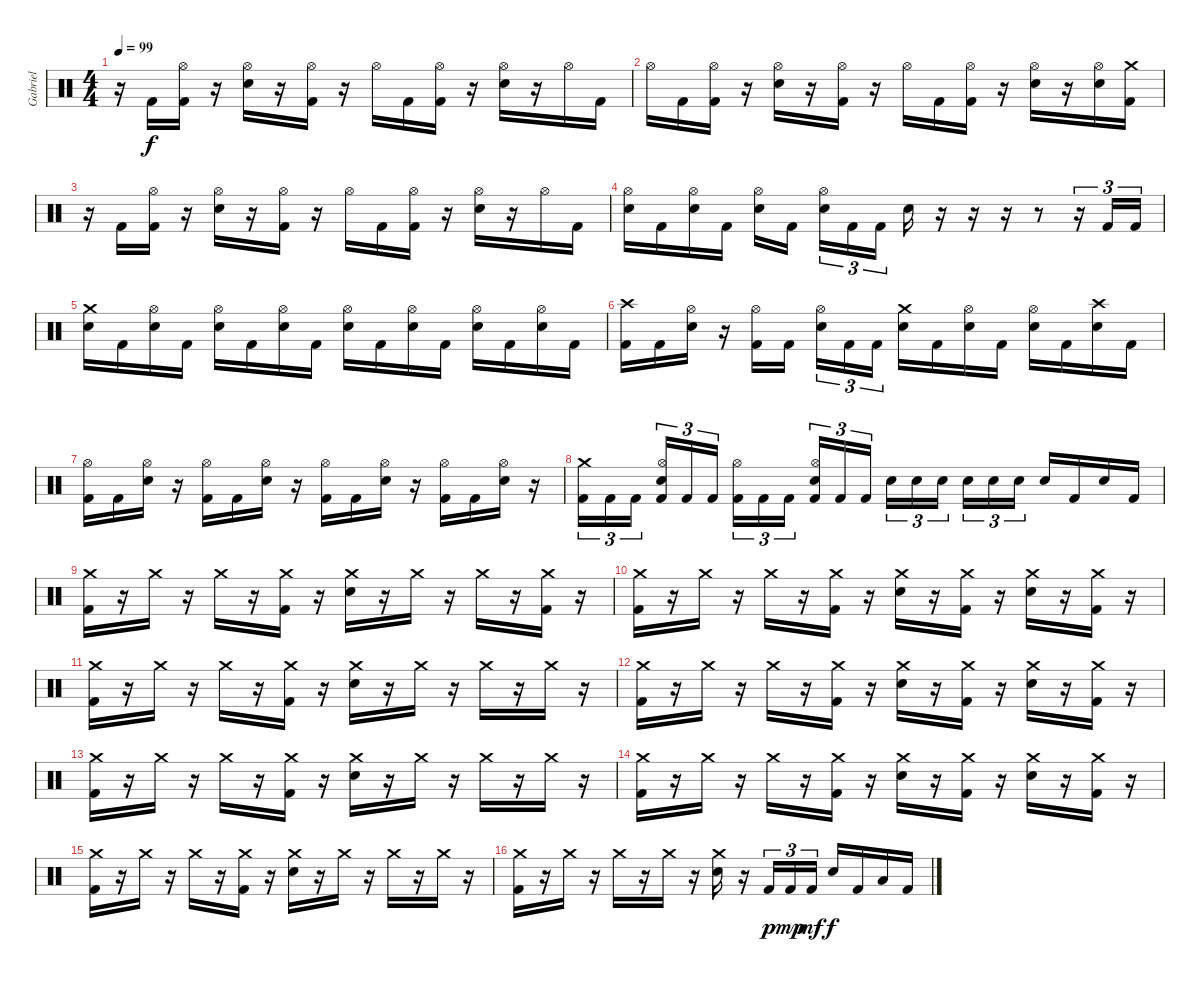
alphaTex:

\track ("Gabriel" "Gabriel") {instrument percussion}
\staff {score}
\articulation defaults
\ts (4 4)
\tempo 99
\clef neutral
\ks c
r.16{dy f} "Kick (hit) 2".16 ("Hi-Hat (open)" "Kick (hit) 2").16 r.16 ("Hi-Hat (open)" "Electric Snare (hit)").16 r.16 ("Hi-Hat (open)" "Kick (hit) 2").16 r.16 "Hi-Hat (open)".16 "Kick (hit) 2".16 ("Hi-Hat (open)" "Kick (hit) 2").16 r.16 ("Hi-Hat (open)" "Electric Snare (hit)").16 r.16 "Hi-Hat (open)".16 "Kick (hit) 2".16 |
"Hi-Hat (open)".16 "Kick (hit) 2".16 ("Hi-Hat (open)" "Kick (hit) 2").16 r.16 ("Hi-Hat (open)" "Electric Snare (hit)").16 r.16 ("Hi-Hat (open)" "Kick (hit) 2").16 r.16 "Hi-Hat (open)".16 "Kick (hit) 2".16 ("Hi-Hat (open)" "Kick (hit) 2").16 r.16 ("Hi-Hat (open)" "Electric Snare (hit)").16 r.16 ("Hi-Hat (open)" "Electric Snare (hit)").16 ("Crash medium (hit)" "Kick (hit) 2").16 |
r.16 "Kick (hit) 2".16 ("Hi-Hat (open)" "Kick (hit) 2").16 r.16 ("Hi-Hat (open)" "Electric Snare (hit)").16 r.16 ("Hi-Hat (open)" "Kick (hit) 2").16 r.16 "Hi-Hat (open)".16 "Kick (hit) 2".16 ("Hi-Hat (open)" "Kick (hit) 2").16 r.16 ("Hi-Hat (open)" "Electric Snare (hit)").16 r.16 "Hi-Hat (open)".16 "Kick (hit) 2".16 |
("Hi-Hat (open)" "Electric Snare (hit)").16 "Kick (hit) 2".16 ("Hi-Hat (open)" "Electric Snare (hit)").16 "Kick (hit) 2".16 ("Hi-Hat (open)" "Electric Snare (hit)").16 "Kick (hit) 2".16{beam splitsecondary} ("Hi-Hat (open)" "Electric Snare (hit)").16{tu (3 2)} "Kick (hit) 2".16{tu (3 2)} "Kick (hit) 2".16{tu (3 2)} "Electric Snare (hit)".16 r.16 r.16 r.16 r.8 r.16{tu (3 2)} "Kick (hit) 2".16{tu (3 2)} "Kick (hit) 2".16{tu (3 2)} |
("Crash medium (hit)" "Electric Snare (hit)").16 "Kick (hit) 2".16 ("Hi-Hat (open)" "Electric Snare (hit)").16 "Kick (hit) 2".16 ("Hi-Hat (open)" "Electric Snare (hit)").16 "Kick (hit) 2".16 ("Hi-Hat (open)" "Electric Snare (hit)").16 "Kick (hit) 2".16 ("Hi-Hat (open)" "Electric Snare (hit)").16 "Kick (hit) 2".16 ("Hi-Hat (open)" "Electric Snare (hit)").16 "Kick (hit) 2".16 ("Hi-Hat (open)" "Electric Snare (hit)").16 "Kick (hit) 2".16 ("Hi-Hat (open)" "Electric Snare (hit)").16 "Kick (hit) 2".16 |
("Crash high (hit)" "Kick (hit) 2").16 "Kick (hit) 2".16 ("Hi-Hat (open)" "Electric Snare (hit)").16 r.16 ("Hi-Hat (open)" "Kick (hit) 2").16 "Kick (hit) 2".16{beam splitsecondary} ("Hi-Hat (open)" "Electric Snare (hit)").16{tu (3 2)} "Kick (hit) 2".16{tu (3 2)} "Kick (hit) 2".16{tu (3 2)} ("Crash medium (hit)" "Electric Snare (hit)").16 "Kick (hit) 2".16 ("Hi-Hat (open)" "Electric Snare (hit)").16 "Kick (hit) 2".16 ("Hi-Hat (open)" "Electric Snare (hit)").16 "Kick (hit) 2".16 ("Crash high (hit)" "Electric Snare (hit)").16 "Kick (hit) 2".16 |
("Hi-Hat (open)" "Kick (hit) 2").16 "Kick (hit) 2".16 ("Hi-Hat (open)" "Electric Snare (hit)").16 r.16 ("Hi-Hat (open)" "Kick (hit) 2").16 "Kick (hit) 2".16 ("Hi-Hat (open)" "Electric Snare (hit)").16 r.16 ("Hi-Hat (open)" "Kick (hit) 2").16 "Kick (hit) 2".16 ("Hi-Hat (open)" "Electric Snare (hit)").16 r.16 ("Hi-Hat (open)" "Kick (hit) 2").16 "Kick (hit) 2".16 ("Hi-Hat (open)" "Electric Snare (hit)").16 r.16 |
("Crash medium (hit)" "Kick (hit) 2").16{tu (3 2)} "Kick (hit) 2".16{tu (3 2)} "Kick (hit) 2".16{tu (3 2) beam splitsecondary} ("Hi-Hat (open)" "Electric Snare (hit)" "Kick (hit) 2").16{tu (3 2)} "Kick (hit) 2".16{tu (3 2)} "Kick (hit) 2".16{tu (3 2)} ("Hi-Hat (open)" "Kick (hit) 2").16{tu (3 2)} "Kick (hit) 2".16{tu (3 2)} "Kick (hit) 2".16{tu (3 2) beam splitsecondary} ("Hi-Hat (open)" "Electric Snare (hit)" "Kick (hit) 2").16{tu (3 2)} "Kick (hit) 2".16{tu (3 2)} "Kick (hit) 2".16{tu (3 2)} "Electric Snare (hit)".16{tu (3 2)} "Electric Snare (hit)".16{tu (3 2)} "Electric Snare (hit)".16{tu (3 2) beam splitsecondary} "Electric Snare (hit)".16{tu (3 2)} "Electric Snare (hit)".16{tu (3 2)} "Electric Snare (hit)".16{tu (3 2)} "Electric Snare (hit)".16 "Kick (hit) 2".16 "Electric Snare (hit)".16 "Kick (hit) 2".16 |
("Crash medium (hit)" "Kick (hit) 2").16 r.16 "Crash medium (hit)".16 r.16 "Crash medium (hit)".16 r.16 ("Crash medium (hit)" "Kick (hit) 2").16 r.16 ("Crash medium (hit)" "Electric Snare (hit)").16 r.16 "Crash medium (hit)".16 r.16 "Crash medium (hit)".16 r.16 ("Crash medium (hit)" "Kick (hit) 2").16 r.16 |
("Crash medium (hit)" "Kick (hit) 2").16 r.16 "Crash medium (hit)".16 r.16 "Crash medium (hit)".16 r.16 ("Crash medium (hit)" "Kick (hit) 2").16 r.16 ("Crash medium (hit)" "Electric Snare (hit)").16 r.16 ("Crash medium (hit)" "Kick (hit) 2").16 r.16 ("Crash medium (hit)" "Electric Snare (hit)").16 r.16 ("Crash medium (hit)" "Kick (hit) 2").16 r.16 |
("Crash medium (hit)" "Kick (hit) 2").16 r.16 "Crash medium (hit)".16 r.16 "Crash medium (hit)".16 r.16 ("Crash medium (hit)" "Kick (hit) 2").16 r.16 ("Crash medium (hit)" "Electric Snare (hit)").16 r.16 "Crash medium (hit)".16 r.16 "Crash medium (hit)".16 r.16 "Crash medium (hit)".16 r.16 |
("Crash medium (hit)" "Kick (hit) 2").16 r.16 "Crash medium (hit)".16 r.16 "Crash medium (hit)".16 r.16 ("Crash medium (hit)" "Kick (hit) 2").16 r.16 ("Crash medium (hit)" "Electric Snare (hit)").16 r.16 ("Crash medium (hit)" "Kick (hit) 2").16 r.16 ("Crash medium (hit)" "Electric Snare (hit)").16 r.16 ("Crash medium (hit)" "Kick (hit) 2").16 r.16 |
("Crash medium (hit)" "Kick (hit) 2").16 r.16 "Crash medium (hit)".16 r.16 "Crash medium (hit)".16 r.16 ("Crash medium (hit)" "Kick (hit) 2").16 r.16 ("Crash medium (hit)" "Electric Snare (hit)").16 r.16 "Crash medium (hit)".16 r.16 "Crash medium (hit)".16 r.16 "Crash medium (hit)".16 r.16 |
("Crash medium (hit)" "Kick (hit) 2").16 r.16 "Crash medium (hit)".16 r.16 "Crash medium (hit)".16 r.16 ("Crash medium (hit)" "Kick (hit) 2").16 r.16 ("Crash medium (hit)" "Electric Snare (hit)").16 r.16 ("Crash medium (hit)" "Kick (hit) 2").16 r.16 ("Crash medium (hit)" "Electric Snare (hit)").16 r.16 ("Crash medium (hit)" "Kick (hit) 2").16 r.16 |
("Crash medium (hit)" "Kick (hit) 2").16 r.16 "Crash medium (hit)".16 r.16 "Crash medium (hit)".16 r.16 ("Crash medium (hit)" "Kick (hit) 2").16 r.16 ("Crash medium (hit)" "Electric Snare (hit)").16 r.16 "Crash medium (hit)".16 r.16 "Crash medium (hit)".16 r.16 "Crash medium (hit)".16 r.16 |
("Crash medium (hit)" "Kick (hit) 2").16 r.16 "Crash medium (hit)".16 r.16 "Crash medium (hit)".16 r.16 "Crash medium (hit)".16 r.16 ("Crash medium (hit)" "Electric Snare (hit)").16 r.16 "Kick (hit) 2".16{tu (3 2) dy p} "Kick (hit) 2".16{tu (3 2) dy mp} "Kick (hit) 2".16{tu (3 2) dy mf} "Electric Snare (hit)".16{dy f} "Kick (hit) 2".16 "Low Tom (hit)".16 "Kick (hit) 2".16
